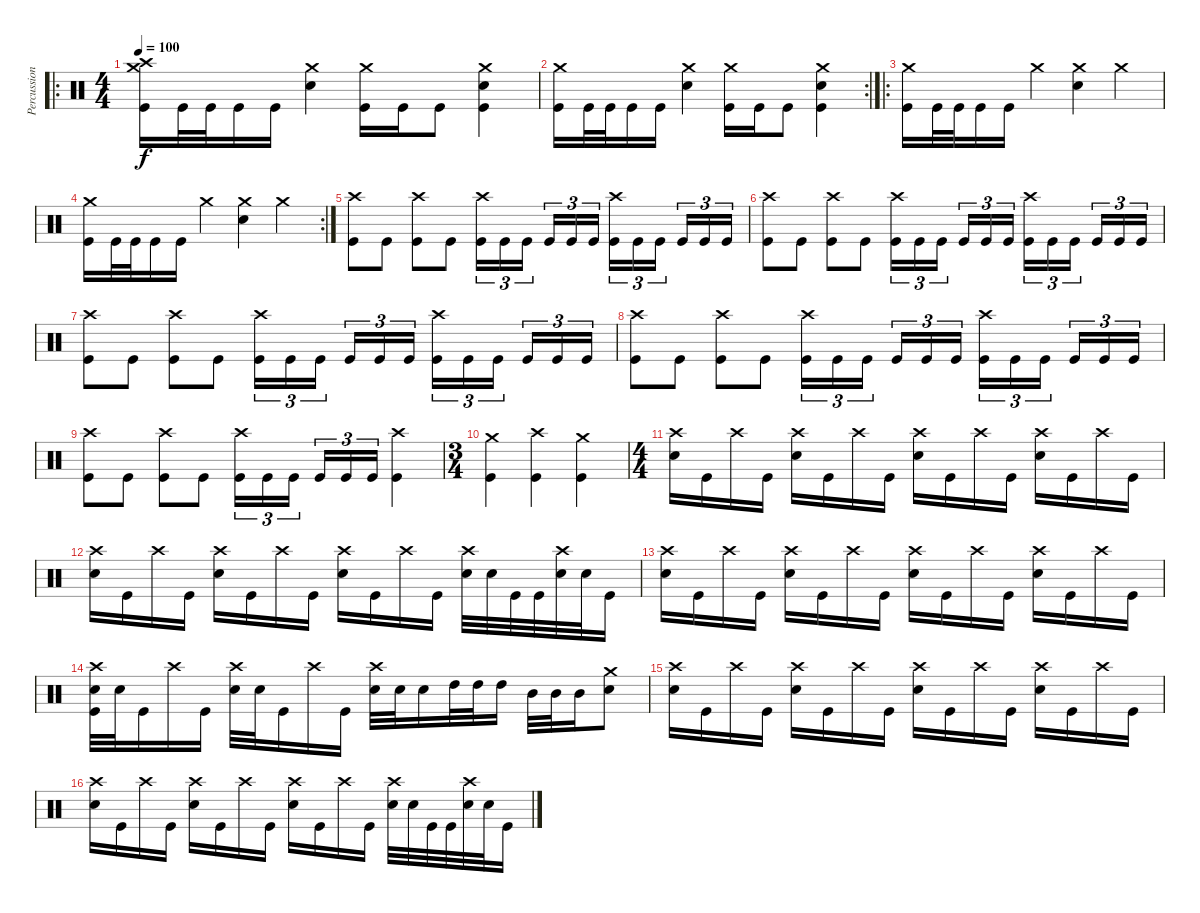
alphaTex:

\track ("Percussion" "Percussion") {instrument percussion}
\staff {score}
\articulation defaults
\ro
\ts (4 4)
\tempo 100
\clef neutral
\ks c
("Crash medium (hit)" "Crash high (hit)" "Kick (hit)").16{dy f} "Kick (hit)".32 "Kick (hit)".32 "Kick (hit)".16 "Kick (hit)".16 ("Crash medium (hit)" "Electric Snare (hit)").4 ("Crash medium (hit)" "Kick (hit)").16 "Kick (hit)".16 "Kick (hit)".8 ("Crash medium (hit)" "Electric Snare (hit)" "Kick (hit)").4 |
\rc 2
("Crash medium (hit)" "Kick (hit)").16 "Kick (hit)".32 "Kick (hit)".32 "Kick (hit)".16 "Kick (hit)".16 ("Crash medium (hit)" "Electric Snare (hit)").4 ("Crash medium (hit)" "Kick (hit)").16 "Kick (hit)".16 "Kick (hit)".8 ("Crash medium (hit)" "Electric Snare (hit)" "Kick (hit)").4 |
\ro
("Crash medium (hit)" "Kick (hit)").16 "Kick (hit)".32 "Kick (hit)".32 "Kick (hit)".16 "Kick (hit)".16 "Crash medium (hit)".4 ("Crash medium (hit)" "Electric Snare (hit)").4 "Crash medium (hit)".4 |
\rc 2
("Crash medium (hit)" "Kick (hit)").16 "Kick (hit)".32 "Kick (hit)".32 "Kick (hit)".16 "Kick (hit)".16 "Crash medium (hit)".4 ("Crash medium (hit)" "Electric Snare (hit)").4 "Crash medium (hit)".4 |
("Crash high (hit)" "Kick (hit)").8 "Kick (hit)".8 ("Crash high (hit)" "Kick (hit)").8 "Kick (hit)".8 ("Crash high (hit)" "Kick (hit)").16{tu (3 2)} "Kick (hit)".16{tu (3 2)} "Kick (hit)".16{tu (3 2) beam splitsecondary} "Kick (hit)".16{tu (3 2)} "Kick (hit)".16{tu (3 2)} "Kick (hit)".16{tu (3 2)} ("Crash high (hit)" "Kick (hit)").16{tu (3 2)} "Kick (hit)".16{tu (3 2)} "Kick (hit)".16{tu (3 2) beam splitsecondary} "Kick (hit)".16{tu (3 2)} "Kick (hit)".16{tu (3 2)} "Kick (hit)".16{tu (3 2)} |
("Crash high (hit)" "Kick (hit)").8 "Kick (hit)".8 ("Crash high (hit)" "Kick (hit)").8 "Kick (hit)".8 ("Crash high (hit)" "Kick (hit)").16{tu (3 2)} "Kick (hit)".16{tu (3 2)} "Kick (hit)".16{tu (3 2) beam splitsecondary} "Kick (hit)".16{tu (3 2)} "Kick (hit)".16{tu (3 2)} "Kick (hit)".16{tu (3 2)} ("Crash high (hit)" "Kick (hit)").16{tu (3 2)} "Kick (hit)".16{tu (3 2)} "Kick (hit)".16{tu (3 2) beam splitsecondary} "Kick (hit)".16{tu (3 2)} "Kick (hit)".16{tu (3 2)} "Kick (hit)".16{tu (3 2)} |
("Crash high (hit)" "Kick (hit)").8 "Kick (hit)".8 ("Crash high (hit)" "Kick (hit)").8 "Kick (hit)".8 ("Crash high (hit)" "Kick (hit)").16{tu (3 2)} "Kick (hit)".16{tu (3 2)} "Kick (hit)".16{tu (3 2) beam splitsecondary} "Kick (hit)".16{tu (3 2)} "Kick (hit)".16{tu (3 2)} "Kick (hit)".16{tu (3 2)} ("Crash high (hit)" "Kick (hit)").16{tu (3 2)} "Kick (hit)".16{tu (3 2)} "Kick (hit)".16{tu (3 2) beam splitsecondary} "Kick (hit)".16{tu (3 2)} "Kick (hit)".16{tu (3 2)} "Kick (hit)".16{tu (3 2)} |
("Crash high (hit)" "Kick (hit)").8 "Kick (hit)".8 ("Crash high (hit)" "Kick (hit)").8 "Kick (hit)".8 ("Crash high (hit)" "Kick (hit)").16{tu (3 2)} "Kick (hit)".16{tu (3 2)} "Kick (hit)".16{tu (3 2) beam splitsecondary} "Kick (hit)".16{tu (3 2)} "Kick (hit)".16{tu (3 2)} "Kick (hit)".16{tu (3 2)} ("Crash high (hit)" "Kick (hit)").16{tu (3 2)} "Kick (hit)".16{tu (3 2)} "Kick (hit)".16{tu (3 2) beam splitsecondary} "Kick (hit)".16{tu (3 2)} "Kick (hit)".16{tu (3 2)} "Kick (hit)".16{tu (3 2)} |
("Crash high (hit)" "Kick (hit)").8 "Kick (hit)".8 ("Crash high (hit)" "Kick (hit)").8 "Kick (hit)".8 ("Crash high (hit)" "Kick (hit)").16{tu (3 2)} "Kick (hit)".16{tu (3 2)} "Kick (hit)".16{tu (3 2) beam splitsecondary} "Kick (hit)".16{tu (3 2)} "Kick (hit)".16{tu (3 2)} "Kick (hit)".16{tu (3 2)} ("Crash high (hit)" "Kick (hit)").4 |
\ts (3 4)
("Crash medium (hit)" "Kick (hit)").4 ("Crash high (hit)" "Kick (hit)").4 ("Crash medium (hit)" "Kick (hit)").4 |
\ts (4 4)
("Crash high (hit)" "Electric Snare (hit)").16 "Kick (hit)".16 "Crash high (hit)".16 "Kick (hit)".16 ("Crash high (hit)" "Electric Snare (hit)").16 "Kick (hit)".16 "Crash high (hit)".16 "Kick (hit)".16 ("Crash high (hit)" "Electric Snare (hit)").16 "Kick (hit)".16 "Crash high (hit)".16 "Kick (hit)".16 ("Crash high (hit)" "Electric Snare (hit)").16 "Kick (hit)".16 "Crash high (hit)".16 "Kick (hit)".16 |
("Crash high (hit)" "Electric Snare (hit)").16 "Kick (hit)".16 "Crash high (hit)".16 "Kick (hit)".16 ("Crash high (hit)" "Electric Snare (hit)").16 "Kick (hit)".16 "Crash high (hit)".16 "Kick (hit)".16 ("Crash high (hit)" "Electric Snare (hit)").16 "Kick (hit)".16 "Crash high (hit)".16 "Kick (hit)".16 ("Crash high (hit)" "Electric Snare (hit)").32 "Electric Snare (hit)".32 "Kick (hit)".32 "Kick (hit)".32 ("Crash high (hit)" "Electric Snare (hit)").32 "Electric Snare (hit)".32 "Kick (hit)".16 |
("Crash high (hit)" "Electric Snare (hit)").16 "Kick (hit)".16 "Crash high (hit)".16 "Kick (hit)".16 ("Crash high (hit)" "Electric Snare (hit)").16 "Kick (hit)".16 "Crash high (hit)".16 "Kick (hit)".16 ("Crash high (hit)" "Electric Snare (hit)").16 "Kick (hit)".16 "Crash high (hit)".16 "Kick (hit)".16 ("Crash high (hit)" "Electric Snare (hit)").16 "Kick (hit)".16 "Crash high (hit)".16 "Kick (hit)".16 |
("Crash high (hit)" "Electric Snare (hit)" "Kick (hit)").32 "Electric Snare (hit)".32 "Kick (hit)".16 "Crash high (hit)".16 "Kick (hit)".16 ("Crash high (hit)" "Electric Snare (hit)").32 "Electric Snare (hit)".32 "Kick (hit)".16 "Crash high (hit)".16 "Kick (hit)".16 ("Crash high (hit)" "Electric Snare (hit)").32 "Electric Snare (hit)".32 "Electric Snare (hit)".16 "High Tom (hit)".32 "High Tom (hit)".32 "High Tom (hit)".16 "Mid Tom (hit)".32 "Mid Tom (hit)".32 "Mid Tom (hit)".16 ("Electric Snare (hit)" "Crash medium (hit)").8 |
("Crash high (hit)" "Electric Snare (hit)").16 "Kick (hit)".16 "Crash high (hit)".16 "Kick (hit)".16 ("Crash high (hit)" "Electric Snare (hit)").16 "Kick (hit)".16 "Crash high (hit)".16 "Kick (hit)".16 ("Crash high (hit)" "Electric Snare (hit)").16 "Kick (hit)".16 "Crash high (hit)".16 "Kick (hit)".16 ("Crash high (hit)" "Electric Snare (hit)").16 "Kick (hit)".16 "Crash high (hit)".16 "Kick (hit)".16 |
("Crash high (hit)" "Electric Snare (hit)").16 "Kick (hit)".16 "Crash high (hit)".16 "Kick (hit)".16 ("Crash high (hit)" "Electric Snare (hit)").16 "Kick (hit)".16 "Crash high (hit)".16 "Kick (hit)".16 ("Crash high (hit)" "Electric Snare (hit)").16 "Kick (hit)".16 "Crash high (hit)".16 "Kick (hit)".16 ("Crash high (hit)" "Electric Snare (hit)").32 "Electric Snare (hit)".32 "Kick (hit)".32 "Kick (hit)".32 ("Crash high (hit)" "Electric Snare (hit)").32 "Electric Snare (hit)".32 "Kick (hit)".16
